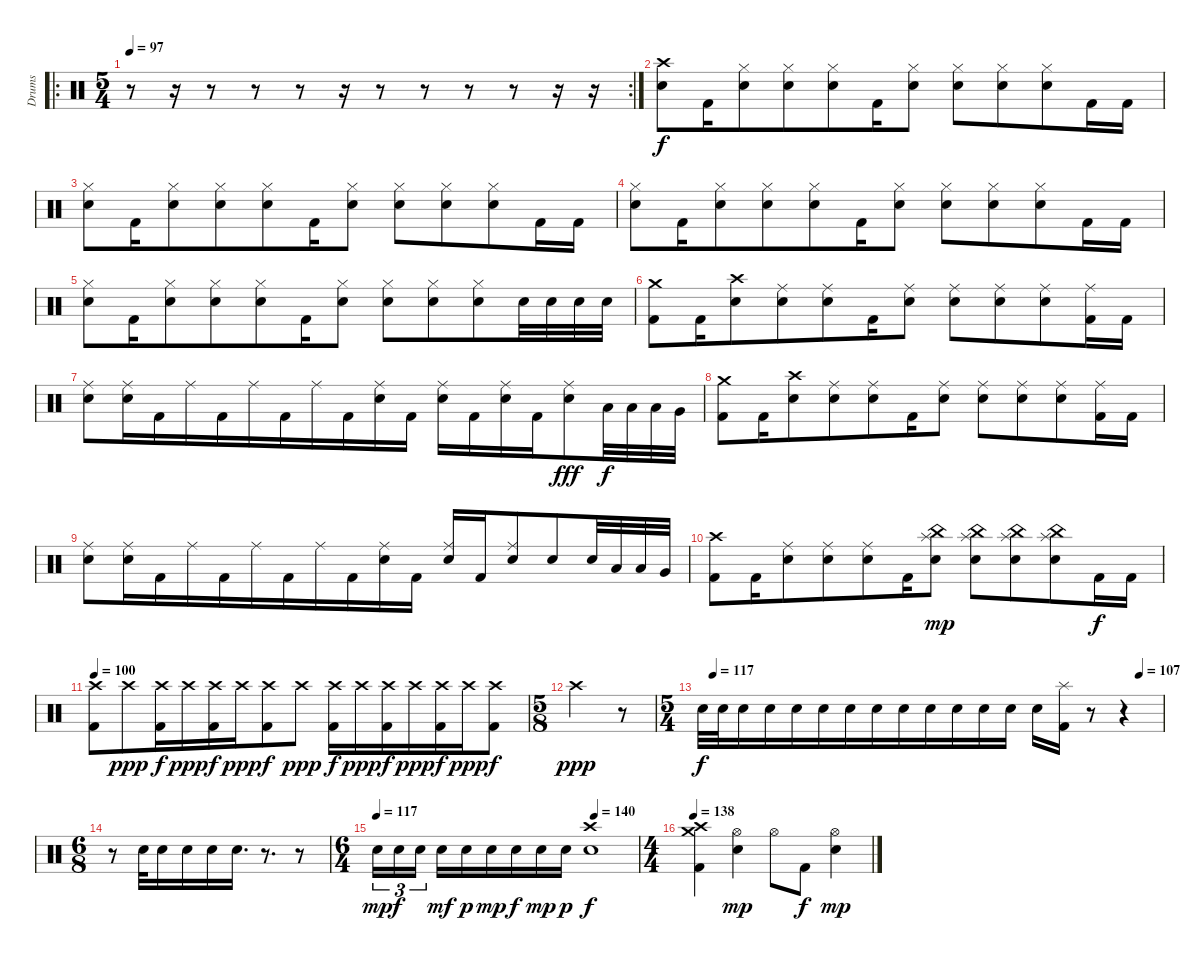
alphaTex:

\bracketExtendMode groupsimilarinstruments
\otherSystemsTrackNameOrientation horizontal
\track ("Drumkit" "Drums") {instrument percussion}
\staff {score}
\articulation defaults
\ro
\rc 2
\ts (5 4)
\beaming (8 6 4)
\tempo 97
\clef neutral
\ks c
r.8{dy f beam Down} r.16{beam Down} r.8{beam Down} r.8{beam Down} r.8{beam Down} r.16{beam Down} r.8{beam Down} r.8{beam Down} r.8{beam Down} r.8{beam Down} r.16{beam Down} r.16{beam Down} |
("Crash high (hit)" "Snare (hit) 2").8{beam Down} "Kick (hit) 2".16{beam Down} ("Hi-Hat (closed)" "Snare (hit) 2").8{beam Down} ("Hi-Hat (closed)" "Snare (hit) 2").8{beam Down} ("Hi-Hat (closed)" "Snare (hit) 2").8{beam Down} "Kick (hit) 2".16{beam Down} ("Hi-Hat (closed)" "Snare (hit) 2").8{beam Down} ("Hi-Hat (closed)" "Snare (hit) 2").8{beam Down} ("Hi-Hat (closed)" "Snare (hit) 2").8{beam Down} ("Hi-Hat (closed)" "Snare (hit) 2").8{beam Down} "Kick (hit) 2".16{beam Down} "Kick (hit) 2".16{beam Down} |
("Hi-Hat (closed)" "Snare (hit) 2").8{beam Down} "Kick (hit) 2".16{beam Down} ("Hi-Hat (closed)" "Snare (hit) 2").8{beam Down} ("Hi-Hat (closed)" "Snare (hit) 2").8{beam Down} ("Hi-Hat (closed)" "Snare (hit) 2").8{beam Down} "Kick (hit) 2".16{beam Down} ("Hi-Hat (closed)" "Snare (hit) 2").8{beam Down} ("Hi-Hat (closed)" "Snare (hit) 2").8{beam Down} ("Hi-Hat (closed)" "Snare (hit) 2").8{beam Down} ("Hi-Hat (closed)" "Snare (hit) 2").8{beam Down} "Kick (hit) 2".16{beam Down} "Kick (hit) 2".16{beam Down} |
("Hi-Hat (closed)" "Snare (hit) 2").8{beam Down} "Kick (hit) 2".16{beam Down} ("Hi-Hat (closed)" "Snare (hit) 2").8{beam Down} ("Hi-Hat (closed)" "Snare (hit) 2").8{beam Down} ("Hi-Hat (closed)" "Snare (hit) 2").8{beam Down} "Kick (hit) 2".16{beam Down} ("Hi-Hat (closed)" "Snare (hit) 2").8{beam Down} ("Hi-Hat (closed)" "Snare (hit) 2").8{beam Down} ("Hi-Hat (closed)" "Snare (hit) 2").8{beam Down} ("Hi-Hat (closed)" "Snare (hit) 2").8{beam Down} "Kick (hit) 2".16{beam Down} "Kick (hit) 2".16{beam Down} |
("Hi-Hat (closed)" "Snare (hit) 2").8{beam Down} "Kick (hit) 2".16{beam Down} ("Hi-Hat (closed)" "Snare (hit) 2").8{beam Down} ("Hi-Hat (closed)" "Snare (hit) 2").8{beam Down} ("Hi-Hat (closed)" "Snare (hit) 2").8{beam Down} "Kick (hit) 2".16{beam Down} ("Hi-Hat (closed)" "Snare (hit) 2").8{beam Down} ("Hi-Hat (closed)" "Snare (hit) 2").8{beam Down} ("Hi-Hat (closed)" "Snare (hit) 2").8{beam Down} ("Hi-Hat (closed)" "Snare (hit) 2").8{beam Down} "Snare (hit) 2".32{beam Down} "Snare (hit) 2".32{beam Down} "Snare (hit) 2".32{beam Down} "Snare (hit) 2".32{beam Down} |
("Crash medium (hit)" "Kick (hit) 2").8{beam Down} "Kick (hit) 2".16{beam Down} ("Crash high (hit)" "Snare (hit) 2").8{beam Down} ("Ride (middle)" "Snare (hit) 2").8{beam Down} ("Ride (middle)" "Snare (hit) 2").8{beam Down} "Kick (hit) 2".16{beam Down} ("Ride (middle)" "Snare (hit) 2").8{beam Down} ("Ride (middle)" "Snare (hit) 2").8{beam Down} ("Ride (middle)" "Snare (hit) 2").8{beam Down} ("Ride (middle)" "Snare (hit) 2").8{beam Down} ("Ride (middle)" "Kick (hit) 2").16{beam Down} "Kick (hit) 2".16{beam Down} |
("Ride (middle)" "Snare (hit) 2").8{beam Down} ("Ride (middle)" "Snare (hit) 2").16{beam Down} "Kick (hit) 2".16{beam Down} "Ride (middle)".16{beam Down} "Kick (hit) 2".16{beam Down} "Ride (middle)".16{beam Down} "Kick (hit) 2".16{beam Down} "Ride (middle)".16{beam Down} "Kick (hit) 2".16{beam Down} ("Ride (middle)" "Snare (hit) 2").16{beam Down} "Kick (hit) 2".16{beam Down} ("Ride (middle)" "Snare (hit) 2").16{beam Down} "Kick (hit) 2".16{beam Down} ("Ride (middle)" "Snare (hit) 2").16{beam Down} "Kick (hit) 2".16{beam Down} ("Ride (middle)" "Snare (hit) 2").8{dy fff beam Down} "Low Tom (hit)".32{dy f beam Down} "Low Tom (hit)".32{beam Down} "Low Tom (hit)".32{beam Down} "Very Low Tom (hit)".32{beam Down} |
("Crash medium (hit)" "Kick (hit) 2").8{beam Down} "Kick (hit) 2".16{beam Down} ("Crash high (hit)" "Snare (hit) 2").8{beam Down} ("Ride (middle)" "Snare (hit) 2").8{beam Down} ("Ride (middle)" "Snare (hit) 2").8{beam Down} "Kick (hit) 2".16{beam Down} ("Ride (middle)" "Snare (hit) 2").8{beam Down} ("Ride (middle)" "Snare (hit) 2").8{beam Down} ("Ride (middle)" "Snare (hit) 2").8{beam Down} ("Ride (middle)" "Snare (hit) 2").8{beam Down} ("Ride (middle)" "Kick (hit) 2").16{beam Down} "Kick (hit) 2".16{beam Down} |
("Ride (middle)" "Snare (hit) 2").8{beam Down} ("Ride (middle)" "Snare (hit) 2").16{beam Down} "Kick (hit) 2".16{beam Down} "Ride (middle)".16{beam Down} "Kick (hit) 2".16{beam Down} "Ride (middle)".16{beam Down} "Kick (hit) 2".16{beam Down} "Ride (middle)".16{beam Down} "Kick (hit) 2".16{beam Down} ("Ride (middle)" "Snare (hit) 2").16{beam Down} "Kick (hit) 2".16{beam Down} ("Ride (middle)" "Snare (hit) 2").16{beam Up} "Kick (hit) 2".16{beam Up} ("Ride (middle)" "Snare (hit) 2").8{beam Up} "Snare (hit) 2".8{beam Up} "Snare (hit) 2".32{beam Up} "Low Tom (hit)".32{beam Up} "Low Tom (hit)".32{beam Up} "Very Low Tom (hit)".32{beam Up} |
("Crash high (hit)" "Kick (hit) 2").8{beam Down} "Kick (hit) 2".16{beam Down} ("Ride (middle)" "Snare (hit) 2").8{beam Down} ("Ride (middle)" "Snare (hit) 2").8{beam Down} ("Ride (middle)" "Snare (hit) 2").8{beam Down} "Kick (hit) 2".16{beam Down} ("China (hit)" "Snare (hit) 2" "Splash (hit)").8{dy mp beam Down} ("China (hit)" "Snare (hit) 2" "Splash (hit)").8{beam Down} ("China (hit)" "Snare (hit) 2" "Splash (hit)").8{beam Down} ("China (hit)" "Snare (hit) 2" "Splash (hit)").8{beam Down} "Kick (hit) 2".16{dy f beam Down} "Kick (hit) 2".16{beam Down} |
\tempo 100
("Crash high (hit)" "Kick (hit) 2").8{beam Down} "Crash high (hit)".8{dy ppp beam Down} ("Crash high (hit)" "Kick (hit) 2").16{dy f beam Down} "Crash high (hit)".16{dy ppp beam Down} ("Crash high (hit)" "Kick (hit) 2").16{dy f beam Down} "Crash high (hit)".16{dy ppp beam Down} ("Crash high (hit)" "Kick (hit) 2").8{dy f beam Down} "Crash high (hit)".8{dy ppp beam Down} ("Crash high (hit)" "Kick (hit) 2").16{dy f beam Down} "Crash high (hit)".16{dy ppp beam Down} ("Crash high (hit)" "Kick (hit) 2").16{dy f beam Down} "Crash high (hit)".16{dy ppp beam Down} ("Crash high (hit)" "Kick (hit) 2").16{dy f beam Down} "Crash high (hit)".16{dy ppp beam Down} ("Crash high (hit)" "Kick (hit) 2").8{dy f beam Down} |
\ts (5 8)
\beaming (8 3 2)
"Crash high (hit)".2{dy ppp beam Down} r.8{beam Down} |
\ts (5 4)
\beaming (8 6 4)
\tempo (117 0.025)
\tempo (107 0.95)
"Snare (hit) 2".32{dy f beam Down} "Snare (hit) 2".32{beam Down} "Snare (hit) 2".16{beam Down} "Snare (hit) 2".16{beam Down} "Snare (hit) 2".16{beam Down} "Snare (hit) 2".16{beam Down} "Snare (hit) 2".16{beam Down} "Snare (hit) 2".16{beam Down} "Snare (hit) 2".16{beam Down} "Snare (hit) 2".16{beam Down} "Snare (hit) 2".16{beam Down} "Snare (hit) 2".16{beam Down} "Snare (hit) 2".16{beam Down} "Snare (hit) 2".16{beam Down} ("Splash (hit)" "Kick (hit) 2").16{beam Down} r.8{beam Down} r.4{beam Down} |
\ts (6 8)
\beaming (8 3 3)
r.8{beam Down} "Snare (hit) 2".32{beam Down} "Snare (hit) 2".16{beam Down} "Snare (hit) 2".16{beam Down} "Snare (hit) 2".16{beam Down} "Snare (hit) 2".16{d beam Down} r.8{d beam Down} r.8{beam Down} |
\ts (6 4)
\beaming (8 6 6)
\tempo 117
\tempo (140 0.833333)
"Snare (hit) 2".16{tu (3 2) dy mp beam Down} "Snare (hit) 2".16{tu (3 2) dy f beam Down} "Snare (hit) 2".16{tu (3 2) beam Down} "Snare (hit) 2".16{dy mf beam Down} "Snare (hit) 2".16{dy p beam Down} "Snare (hit) 2".16{dy mp beam Down} "Snare (hit) 2".16{dy f beam Down} "Snare (hit) 2".16{dy mp beam Down} "Snare (hit) 2".16{dy p beam Down} ("Crash high (hit)" "Snare (hit) 2").1{dy f beam Down} |
\ts (4 4)
\beaming (8 2 2 2 2)
\tempo 138
("Crash high (hit)" "Crash medium (hit)" "Kick (hit) 2").4{beam Down} ("Hi-Hat (open)" "Snare (hit) 2").4{dy mp beam Down} "Hi-Hat (open)".8{beam Down} "Kick (hit) 2".8{dy f beam Down} ("Hi-Hat (open)" "Snare (hit) 2").4{dy mp beam Down}
